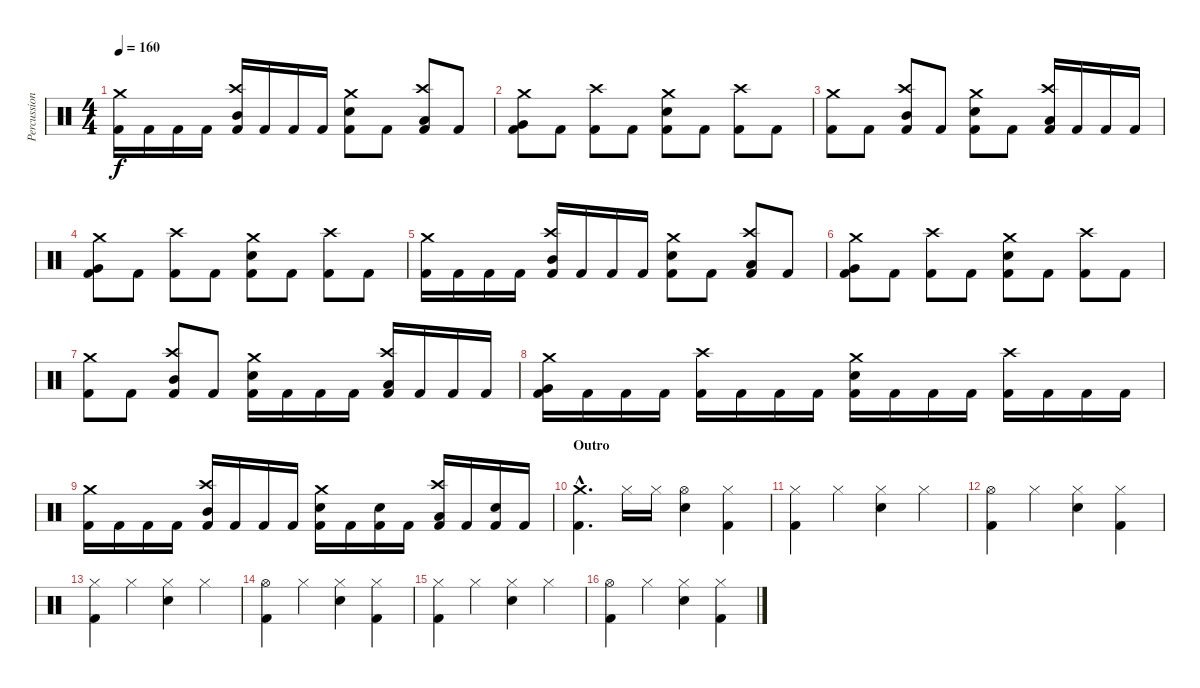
\track ("Percussion" "Percussion") {instrument percussion}
\staff {score}
\articulation defaults
\ts (4 4)
\tempo 160
\clef neutral
\ks c
("Crash medium (hit)" "Kick (hit) 2").16{dy f} "Kick (hit) 2".16 "Kick (hit) 2".16 "Kick (hit) 2".16 ("Crash high (hit)" "Mid Tom (hit)" "Kick (hit) 2").16 "Kick (hit) 2".16 "Kick (hit) 2".16 "Kick (hit) 2".16 ("Crash medium (hit)" "Electric Snare (hit)" "Kick (hit) 2").8 "Kick (hit) 2".8 ("Crash high (hit)" "Low Tom (hit)" "Kick (hit) 2").8 "Kick (hit) 2".8 |
("Crash medium (hit)" "Very Low Tom (hit)" "Kick (hit) 2").8 "Kick (hit) 2".8 ("Crash high (hit)" "Kick (hit) 2").8 "Kick (hit) 2".8 ("Crash medium (hit)" "Electric Snare (hit)" "Kick (hit) 2").8 "Kick (hit) 2".8 ("Crash high (hit)" "Kick (hit) 2").8 "Kick (hit) 2".8 |
("Crash medium (hit)" "Kick (hit) 2").8 "Kick (hit) 2".8 ("Crash high (hit)" "Mid Tom (hit)" "Kick (hit) 2").8 "Kick (hit) 2".8 ("Crash medium (hit)" "Electric Snare (hit)" "Kick (hit) 2").8 "Kick (hit) 2".8 ("Crash high (hit)" "Low Tom (hit)" "Kick (hit) 2").16 "Kick (hit) 2".16 "Kick (hit) 2".16 "Kick (hit) 2".16 |
("Crash medium (hit)" "Very Low Tom (hit)" "Kick (hit) 2").8 "Kick (hit) 2".8 ("Crash high (hit)" "Kick (hit) 2").8 "Kick (hit) 2".8 ("Crash medium (hit)" "Electric Snare (hit)" "Kick (hit) 2").8 "Kick (hit) 2".8 ("Crash high (hit)" "Kick (hit) 2").8 "Kick (hit) 2".8 |
("Crash medium (hit)" "Kick (hit) 2").16 "Kick (hit) 2".16 "Kick (hit) 2".16 "Kick (hit) 2".16 ("Crash high (hit)" "Mid Tom (hit)" "Kick (hit) 2").16 "Kick (hit) 2".16 "Kick (hit) 2".16 "Kick (hit) 2".16 ("Crash medium (hit)" "Electric Snare (hit)" "Kick (hit) 2").8 "Kick (hit) 2".8 ("Crash high (hit)" "Low Tom (hit)" "Kick (hit) 2").8 "Kick (hit) 2".8 |
("Crash medium (hit)" "Very Low Tom (hit)" "Kick (hit) 2").8 "Kick (hit) 2".8 ("Crash high (hit)" "Kick (hit) 2").8 "Kick (hit) 2".8 ("Crash medium (hit)" "Electric Snare (hit)" "Kick (hit) 2").8 "Kick (hit) 2".8 ("Crash high (hit)" "Kick (hit) 2").8 "Kick (hit) 2".8 |
("Crash medium (hit)" "Kick (hit) 2").8 "Kick (hit) 2".8 ("Crash high (hit)" "Mid Tom (hit)" "Kick (hit) 2").8 "Kick (hit) 2".8 ("Crash medium (hit)" "Electric Snare (hit)" "Kick (hit) 2").16 "Kick (hit) 2".16 "Kick (hit) 2".16 "Kick (hit) 2".16 ("Crash high (hit)" "Low Tom (hit)" "Kick (hit) 2").16 "Kick (hit) 2".16 "Kick (hit) 2".16 "Kick (hit) 2".16 |
("Crash medium (hit)" "Very Low Tom (hit)" "Kick (hit) 2").16 "Kick (hit) 2".16 "Kick (hit) 2".16 "Kick (hit) 2".16 ("Crash high (hit)" "Kick (hit) 2").16 "Kick (hit) 2".16 "Kick (hit) 2".16 "Kick (hit) 2".16 ("Crash medium (hit)" "Electric Snare (hit)" "Kick (hit) 2").16 "Kick (hit) 2".16 "Kick (hit) 2".16 "Kick (hit) 2".16 ("Crash high (hit)" "Kick (hit) 2").16 "Kick (hit) 2".16 "Kick (hit) 2".16 "Kick (hit) 2".16 |
("Crash medium (hit)" "Kick (hit) 2").16 "Kick (hit) 2".16 "Kick (hit) 2".16 "Kick (hit) 2".16 ("Crash high (hit)" "Mid Tom (hit)" "Kick (hit) 2").16 "Kick (hit) 2".16 "Kick (hit) 2".16 "Kick (hit) 2".16 ("Crash medium (hit)" "Electric Snare (hit)" "Kick (hit) 2").16 "Kick (hit) 2".16 ("Electric Snare (hit)" "Kick (hit) 2").16 "Kick (hit) 2".16 ("Crash high (hit)" "Low Tom (hit)" "Kick (hit) 2").16 "Kick (hit) 2".16 ("Electric Snare (hit)" "Kick (hit) 2").16 "Kick (hit) 2".16 |
\section ("" "Outro")
("Crash medium (hit)"{hac} "Kick (hit) 2"{hac}).4{d} "Hi-Hat (closed)".16 "Hi-Hat (closed)".16 ("Hi-Hat (open)" "Electric Snare (hit)").4 ("Hi-Hat (closed)" "Kick (hit) 2").4 |
("Hi-Hat (closed)" "Kick (hit) 2").4 "Hi-Hat (closed)".4 ("Hi-Hat (closed)" "Electric Snare (hit)").4 "Hi-Hat (closed)".4 |
("Hi-Hat (open)" "Kick (hit) 2").4 "Hi-Hat (closed)".4 ("Hi-Hat (closed)" "Electric Snare (hit)").4 ("Hi-Hat (closed)" "Kick (hit) 2").4 |
("Hi-Hat (closed)" "Kick (hit) 2").4 "Hi-Hat (closed)".4 ("Hi-Hat (closed)" "Electric Snare (hit)").4 "Hi-Hat (closed)".4 |
("Hi-Hat (open)" "Kick (hit) 2").4 "Hi-Hat (closed)".4 ("Hi-Hat (closed)" "Electric Snare (hit)").4 ("Hi-Hat (closed)" "Kick (hit) 2").4 |
("Hi-Hat (closed)" "Kick (hit) 2").4 "Hi-Hat (closed)".4 ("Hi-Hat (closed)" "Electric Snare (hit)").4 "Hi-Hat (closed)".4 |
("Hi-Hat (open)" "Kick (hit) 2").4 "Hi-Hat (closed)".4 ("Hi-Hat (closed)" "Electric Snare (hit)").4 ("Hi-Hat (closed)" "Kick (hit) 2").4
